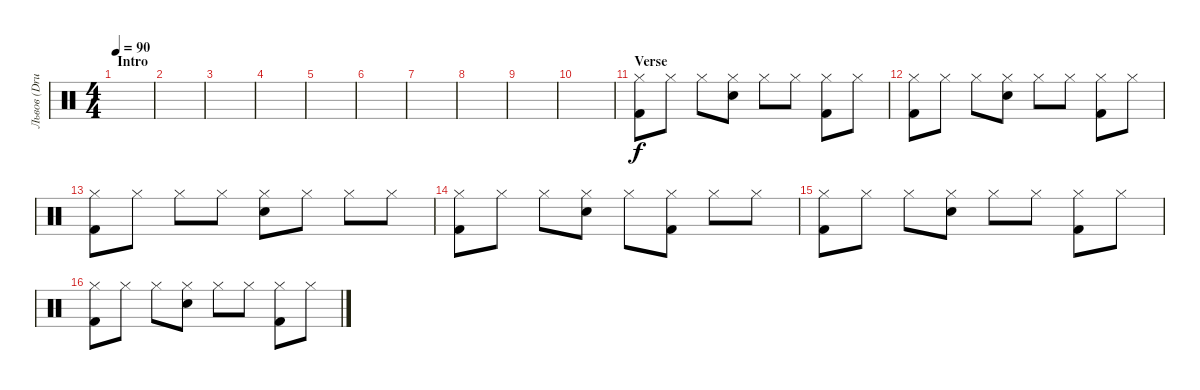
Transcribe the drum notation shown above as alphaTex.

\track ("Львов (Drums)" "Львов (Dru") {instrument percussion}
\staff {score}
\articulation defaults
\ts (4 4)
\section ("" "Intro")
\tempo 90
\clef neutral
\ks c
|
|
|
|
|
|
|
|
|
|
\section ("" "Verse")
("Kick (hit) 2" "Hi-Hat (closed)").8 "Hi-Hat (closed)".8 "Hi-Hat (closed)".8 ("Electric Snare (hit)" "Hi-Hat (closed)").8 "Hi-Hat (closed)".8 "Hi-Hat (closed)".8 ("Kick (hit) 2" "Hi-Hat (closed)").8 "Hi-Hat (closed)".8 |
("Kick (hit) 2" "Hi-Hat (closed)").8 "Hi-Hat (closed)".8 "Hi-Hat (closed)".8 ("Electric Snare (hit)" "Hi-Hat (closed)").8 "Hi-Hat (closed)".8 "Hi-Hat (closed)".8 ("Kick (hit) 2" "Hi-Hat (closed)").8 "Hi-Hat (closed)".8 |
("Kick (hit) 2" "Hi-Hat (closed)").8 "Hi-Hat (closed)".8 "Hi-Hat (closed)".8 "Hi-Hat (closed)".8 ("Electric Snare (hit)" "Hi-Hat (closed)").8 "Hi-Hat (closed)".8 "Hi-Hat (closed)".8 "Hi-Hat (closed)".8 |
("Kick (hit) 2" "Hi-Hat (closed)").8 "Hi-Hat (closed)".8 "Hi-Hat (closed)".8 ("Electric Snare (hit)" "Hi-Hat (closed)").8 "Hi-Hat (closed)".8 ("Kick (hit) 2" "Hi-Hat (closed)").8 "Hi-Hat (closed)".8 "Hi-Hat (closed)".8 |
("Kick (hit) 2" "Hi-Hat (closed)").8 "Hi-Hat (closed)".8 "Hi-Hat (closed)".8 ("Electric Snare (hit)" "Hi-Hat (closed)").8 "Hi-Hat (closed)".8 "Hi-Hat (closed)".8 ("Kick (hit) 2" "Hi-Hat (closed)").8 "Hi-Hat (closed)".8 |
("Kick (hit) 2" "Hi-Hat (closed)").8 "Hi-Hat (closed)".8 "Hi-Hat (closed)".8 ("Electric Snare (hit)" "Hi-Hat (closed)").8 "Hi-Hat (closed)".8 "Hi-Hat (closed)".8 ("Kick (hit) 2" "Hi-Hat (closed)").8 "Hi-Hat (closed)".8
